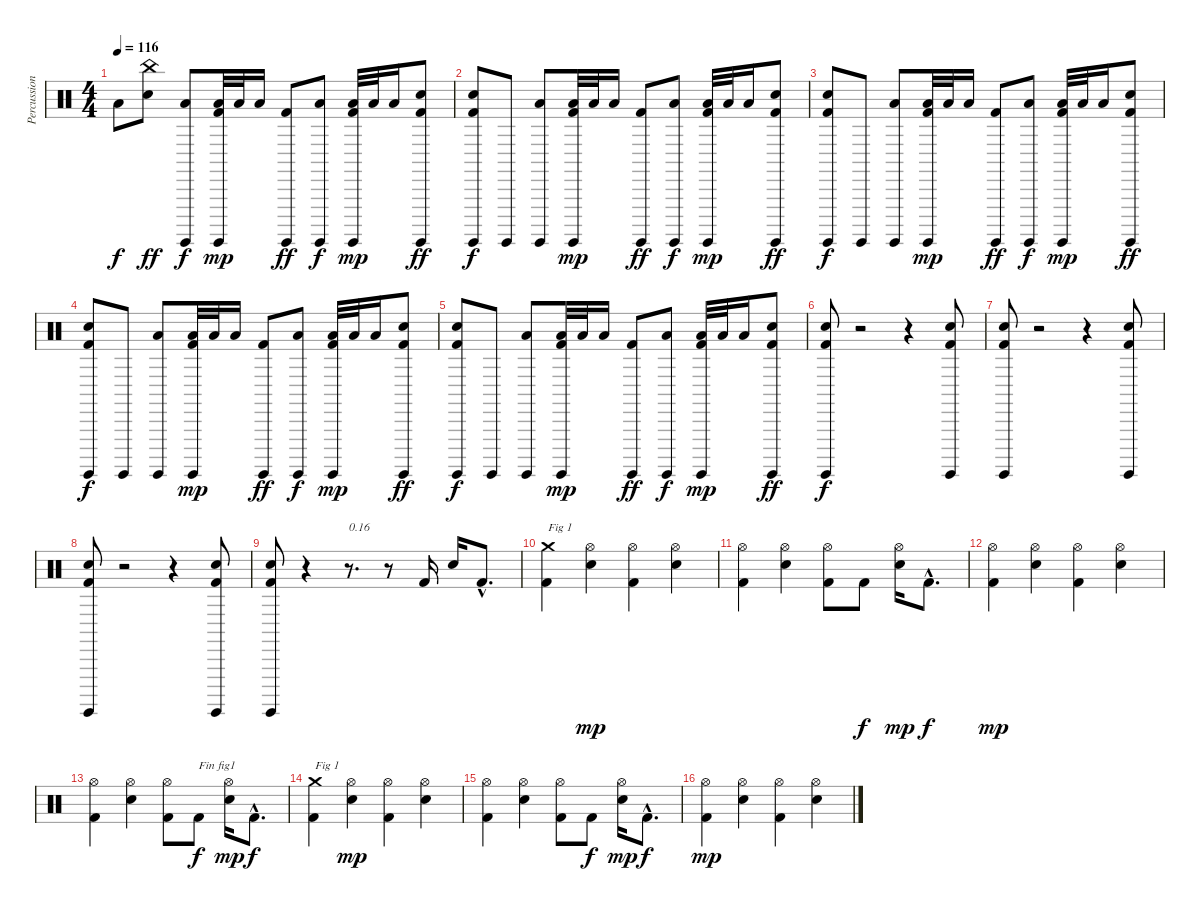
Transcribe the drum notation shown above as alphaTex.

\track ("Percussions" "Percussion") {instrument percussion}
\staff {score}
\articulation defaults
\ts (4 4)
\tempo 116
\clef neutral
\ks c "Low Tom (hit)".8{dy f}
("China (hit)" "Electric Snare (hit)").8{dy ff} ("Low Tom (hit)" "Surdo (hit)").8{dy f} ("Kick (hit) 2" "Low Tom (hit)" "Surdo (hit)").32{dy mp} "Low Tom (hit)".32 "Low Tom (hit)".16 ("Kick (hit) 2" "Surdo (hit)").8{dy ff} ("Low Tom (hit)" "Surdo (hit)").8{dy f} ("Kick (hit) 2" "Low Tom (hit)" "Surdo (hit)").32{dy mp} "Low Tom (hit)".32 "Low Tom (hit)".16 ("Kick (hit) 2" "Electric Snare (hit)" "Surdo (hit)").8{dy ff} |
("Kick (hit) 2" "Electric Snare (hit)" "Surdo (hit)").8{dy f} "Surdo (hit)".8 ("Low Tom (hit)" "Surdo (hit)").8 ("Kick (hit) 2" "Low Tom (hit)" "Surdo (hit)").32{dy mp} "Low Tom (hit)".32 "Low Tom (hit)".16 ("Kick (hit) 2" "Surdo (hit)").8{dy ff} ("Low Tom (hit)" "Surdo (hit)").8{dy f} ("Kick (hit) 2" "Low Tom (hit)" "Surdo (hit)").32{dy mp} "Low Tom (hit)".32 "Low Tom (hit)".16 ("Kick (hit) 2" "Electric Snare (hit)" "Surdo (hit)").8{dy ff} |
("Kick (hit) 2" "Electric Snare (hit)" "Surdo (hit)").8{dy f} "Surdo (hit)".8 ("Low Tom (hit)" "Surdo (hit)").8 ("Kick (hit) 2" "Low Tom (hit)" "Surdo (hit)").32{dy mp} "Low Tom (hit)".32 "Low Tom (hit)".16 ("Kick (hit) 2" "Surdo (hit)").8{dy ff} ("Low Tom (hit)" "Surdo (hit)").8{dy f} ("Kick (hit) 2" "Low Tom (hit)" "Surdo (hit)").32{dy mp} "Low Tom (hit)".32 "Low Tom (hit)".16 ("Kick (hit) 2" "Electric Snare (hit)" "Surdo (hit)").8{dy ff} |
("Kick (hit) 2" "Electric Snare (hit)" "Surdo (hit)").8{dy f} "Surdo (hit)".8 ("Low Tom (hit)" "Surdo (hit)").8 ("Kick (hit) 2" "Low Tom (hit)" "Surdo (hit)").32{dy mp} "Low Tom (hit)".32 "Low Tom (hit)".16 ("Kick (hit) 2" "Surdo (hit)").8{dy ff} ("Low Tom (hit)" "Surdo (hit)").8{dy f} ("Kick (hit) 2" "Low Tom (hit)" "Surdo (hit)").32{dy mp} "Low Tom (hit)".32 "Low Tom (hit)".16 ("Kick (hit) 2" "Electric Snare (hit)" "Surdo (hit)").8{dy ff} |
("Kick (hit) 2" "Electric Snare (hit)" "Surdo (hit)").8{dy f} "Surdo (hit)".8 ("Low Tom (hit)" "Surdo (hit)").8 ("Kick (hit) 2" "Low Tom (hit)" "Surdo (hit)").32{dy mp} "Low Tom (hit)".32 "Low Tom (hit)".16 ("Kick (hit) 2" "Surdo (hit)").8{dy ff} ("Low Tom (hit)" "Surdo (hit)").8{dy f} ("Kick (hit) 2" "Low Tom (hit)" "Surdo (hit)").32{dy mp} "Low Tom (hit)".32 "Low Tom (hit)".16 ("Kick (hit) 2" "Electric Snare (hit)" "Surdo (hit)").8{dy ff} |
("Kick (hit) 2" "Electric Snare (hit)" "Surdo (hit)").8{dy f} r.2 r.4 ("Kick (hit) 2" "Electric Snare (hit)" "Surdo (hit)").8 |
("Kick (hit) 2" "Electric Snare (hit)" "Surdo (hit)").8 r.2 r.4 ("Kick (hit) 2" "Electric Snare (hit)" "Surdo (hit)").8 |
("Kick (hit) 2" "Electric Snare (hit)" "Surdo (hit)").8 r.2 r.4 ("Kick (hit) 2" "Electric Snare (hit)" "Surdo (hit)").8 |
("Kick (hit) 2" "Electric Snare (hit)" "Surdo (hit)").8 r.4 r.8{d txt "0.16"} r.8 "Kick (hit) 2".16 "Electric Snare (hit)".16 "Kick (hit) 2"{hac}.8{d} |
("Kick (hit) 2" "Crash medium (hit)").4{txt "Fig 1"} ("Electric Snare (hit)" "Hi-Hat (open)").4{dy mp} ("Kick (hit) 2" "Hi-Hat (open)").4 ("Electric Snare (hit)" "Hi-Hat (open)").4 |
("Kick (hit) 2" "Hi-Hat (open)").4 ("Electric Snare (hit)" "Hi-Hat (open)").4 ("Kick (hit) 2" "Hi-Hat (open)").8 "Kick (hit) 2".8{dy f} ("Electric Snare (hit)" "Hi-Hat (open)").16{dy mp} "Kick (hit) 2"{hac}.8{d dy f} |
("Kick (hit) 2" "Hi-Hat (open)").4{dy mp} ("Electric Snare (hit)" "Hi-Hat (open)").4 ("Kick (hit) 2" "Hi-Hat (open)").4 ("Electric Snare (hit)" "Hi-Hat (open)").4 |
("Kick (hit) 2" "Hi-Hat (open)").4 ("Electric Snare (hit)" "Hi-Hat (open)").4 ("Kick (hit) 2" "Hi-Hat (open)").8 "Kick (hit) 2".8{txt "Fin fig1" dy f} ("Electric Snare (hit)" "Hi-Hat (open)").16{dy mp} "Kick (hit) 2"{hac}.8{d dy f} |
("Kick (hit) 2" "Crash medium (hit)").4{txt "Fig 1"} ("Electric Snare (hit)" "Hi-Hat (open)").4{dy mp} ("Kick (hit) 2" "Hi-Hat (open)").4 ("Electric Snare (hit)" "Hi-Hat (open)").4 |
("Kick (hit) 2" "Hi-Hat (open)").4 ("Electric Snare (hit)" "Hi-Hat (open)").4 ("Kick (hit) 2" "Hi-Hat (open)").8 "Kick (hit) 2".8{dy f} ("Electric Snare (hit)" "Hi-Hat (open)").16{dy mp} "Kick (hit) 2"{hac}.8{d dy f} |
("Kick (hit) 2" "Hi-Hat (open)").4{dy mp} ("Electric Snare (hit)" "Hi-Hat (open)").4 ("Kick (hit) 2" "Hi-Hat (open)").4 ("Electric Snare (hit)" "Hi-Hat (open)").4
